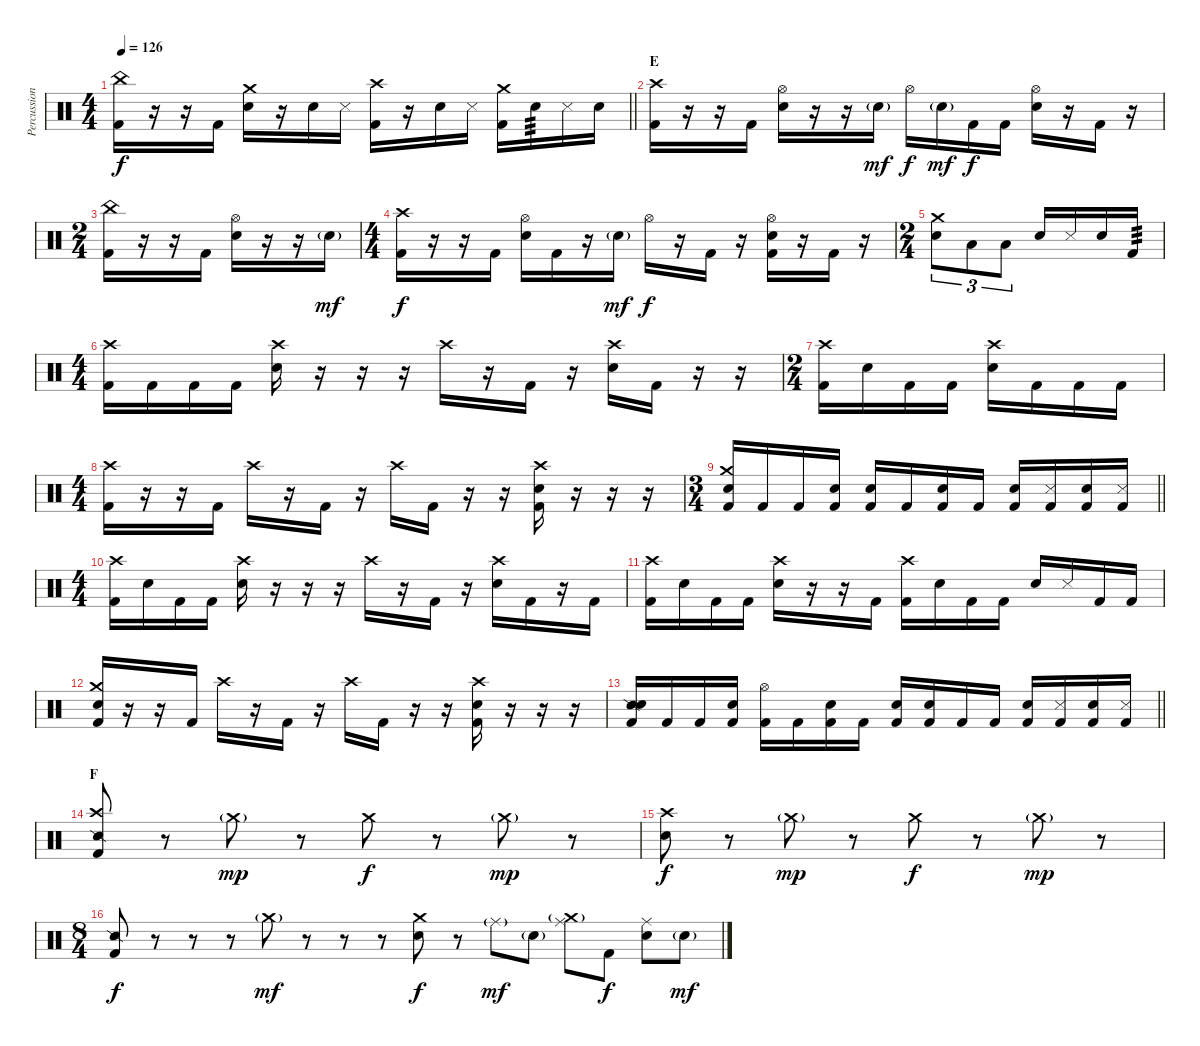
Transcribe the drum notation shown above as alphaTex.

\track ("Percussion" "Percussion") {instrument percussion}
\staff {score}
\articulation defaults
\ts (4 4)
\tempo 126
\clef neutral
\barLineRight lightlight
\ks c
("China (hit)" "Kick (hit) 2").16{dy f} r.16 r.16 "Kick (hit) 2".16 ("Crash medium (hit)" "Snare (hit) 2").16 r.16 "Snare (hit) 2".16 "Metronome (hit)".16 ("Crash high (hit)" "Kick (hit) 2").16 r.16 "Snare (hit) 2".16 "Metronome (hit)".16 ("Crash medium (hit)" "Kick (hit) 2").16 "Snare (hit) 2".16{tp 3} "Metronome (hit)".16 "Snare (hit) 2".16 |
\section ("" "E")
("Crash high (hit)" "Kick (hit) 2").16 r.16 r.16 "Kick (hit) 2".16 ("Hi-Hat (open)" "Snare (hit) 2").16 r.16 r.16 "Snare (hit) 2"{g}.16{dy mf} "Hi-Hat (open)".16{dy f} "Snare (hit) 2"{g}.16{dy mf} "Kick (hit) 2".16{dy f} "Kick (hit) 2".16 ("Hi-Hat (open)" "Snare (hit) 2").16 r.16 "Kick (hit) 2".16 r.16 |
\ts (2 4)
("China (hit)" "Kick (hit) 2").16 r.16 r.16 "Kick (hit) 2".16 ("Hi-Hat (open)" "Snare (hit) 2").16 r.16 r.16 "Snare (hit) 2"{g}.16{dy mf} |
\ts (4 4)
("Crash high (hit)" "Kick (hit) 2").16{dy f} r.16 r.16 "Kick (hit) 2".16 ("Hi-Hat (open)" "Snare (hit) 2").16 "Kick (hit) 2".16 r.16 "Snare (hit) 2"{g}.16{dy mf} "Hi-Hat (open)".16{dy f} r.16 "Kick (hit) 2".16 r.16 ("Hi-Hat (open)" "Snare (hit) 2" "Kick (hit) 2").16 r.16 "Kick (hit) 2".16 r.16 |
\ts (2 4)
("Crash medium (hit)" "Snare (hit) 2").8{tu (3 2)} "Low Tom (hit)".8{tu (3 2)} "Low Tom (hit)".8{tu (3 2)} "Snare (hit) 2".16 "Metronome (hit)".16 "Snare (hit) 2".16 "Kick (hit) 2".16{tp 3} |
\ts (4 4)
("Crash high (hit)" "Kick (hit) 2").16 "Kick (hit) 2".16 "Kick (hit) 2".16 "Kick (hit) 2".16 ("Crash high (hit)" "Snare (hit) 2").16 r.16 r.16 r.16 "Crash high (hit)".16 r.16 "Kick (hit) 2".16 r.16 ("Crash high (hit)" "Snare (hit) 2").16 "Kick (hit) 2".16 r.16 r.16 |
\ts (2 4)
("Crash high (hit)" "Kick (hit) 2").16 "Snare (hit) 2".16 "Kick (hit) 2".16 "Kick (hit) 2".16 ("Crash high (hit)" "Snare (hit) 2").16 "Kick (hit) 2".16 "Kick (hit) 2".16 "Kick (hit) 2".16 |
\ts (4 4)
("Crash high (hit)" "Kick (hit) 2").16 r.16 r.16 "Kick (hit) 2".16 "Crash high (hit)".16 r.16 "Kick (hit) 2".16 r.16 "Crash high (hit)".16 "Kick (hit) 2".16 r.16 r.16 ("Crash high (hit)" "Snare (hit) 2" "Kick (hit) 2").16 r.16 r.16 r.16 |
\ts (3 4)
\barLineRight lightlight
("Crash medium (hit)" "Snare (hit) 2" "Kick (hit) 2").16 "Kick (hit) 2".16 "Kick (hit) 2".16 ("Snare (hit) 2" "Kick (hit) 2").16 ("Snare (hit)" "Kick (hit) 2").16 "Kick (hit) 2".16 ("Snare (hit) 2" "Kick (hit) 2").16 "Kick (hit) 2".16 ("Snare (hit) 2" "Kick (hit) 2").16 ("Metronome (hit)" "Kick (hit) 2").16 ("Snare (hit) 2" "Kick (hit) 2").16 ("Metronome (hit)" "Kick (hit) 2").16 |
\ts (4 4)
("Crash high (hit)" "Kick (hit) 2").16 "Snare (hit) 2".16 "Kick (hit) 2".16 "Kick (hit) 2".16 ("Crash high (hit)" "Snare (hit) 2").16 r.16 r.16 r.16 "Crash high (hit)".16 r.16 "Kick (hit) 2".16 r.16 ("Crash high (hit)" "Snare (hit) 2").16 "Kick (hit) 2".16 r.16 "Kick (hit) 2".16 |
("Crash high (hit)" "Kick (hit) 2").16 "Snare (hit) 2".16 "Kick (hit) 2".16 "Kick (hit) 2".16 ("Crash high (hit)" "Snare (hit) 2").16 r.16 r.16 "Kick (hit) 2".16 ("Crash high (hit)" "Kick (hit) 2").16 "Snare (hit) 2".16 "Kick (hit) 2".16 "Kick (hit) 2".16 "Snare (hit) 2".16 "Metronome (hit)".16 "Kick (hit) 2".16 "Kick (hit) 2".16 |
("Crash medium (hit)" "Snare (hit) 2" "Kick (hit) 2").16 r.16 r.16 "Kick (hit) 2".16 "Crash high (hit)".16 r.16 "Kick (hit) 2".16 r.16 "Crash high (hit)".16 "Kick (hit) 2".16 r.16 r.16 ("Crash high (hit)" "Snare (hit) 2" "Kick (hit) 2").16 r.16 r.16 r.16 |
\barLineRight lightlight
("Snare (side stick) 2" "Snare (hit) 2" "Kick (hit) 2").16 "Kick (hit) 2".16 "Kick (hit) 2".16 ("Snare (hit) 2" "Kick (hit) 2").16 ("Hi-Hat (open)" "Kick (hit) 2").16 "Kick (hit) 2".16 ("Snare (hit) 2" "Kick (hit) 2").16 "Kick (hit) 2".16 ("Snare (hit)" "Kick (hit) 2").16 ("Snare (hit) 2" "Kick (hit) 2").16 "Kick (hit) 2".16 "Kick (hit) 2".16 ("Snare (hit) 2" "Kick (hit) 2").16 ("Metronome (hit)" "Kick (hit) 2").16 ("Snare (hit) 2" "Kick (hit) 2").16 ("Metronome (hit)" "Kick (hit) 2").16 |
\section ("" "F")
("Snare (side stick) 2" "Crash high (hit)" "Kick (hit) 2").8 r.8 "Crash medium (hit)"{g}.8{dy mp} r.8 "Crash medium (hit)".8{dy f} r.8 "Crash medium (hit)"{g}.8{dy mp} r.8 |
("Crash high (hit)" "Snare (hit) 2").8{dy f} r.8 "Crash medium (hit)"{g}.8{dy mp} r.8 "Crash medium (hit)".8{dy f} r.8 "Crash medium (hit)"{g}.8{dy mp} r.8 |
\ts (8 4)
("Snare (side stick) 2" "Kick (hit) 2").8{dy f} r.8 r.8 r.8 "Crash medium (hit)"{g}.8{dy mf} r.8 r.8 r.8 ("Crash medium (hit)" "Snare (hit) 2").8{dy f} r.8 "Ride (middle)"{g}.8{dy mf} "Snare (hit) 2"{g}.8 ("Ride (middle)" "Crash medium (hit)"{g}).8 "Kick (hit) 2".8{dy f} ("Ride (middle)" "Snare (hit) 2").8 "Snare (hit) 2"{g}.8{dy mf}
